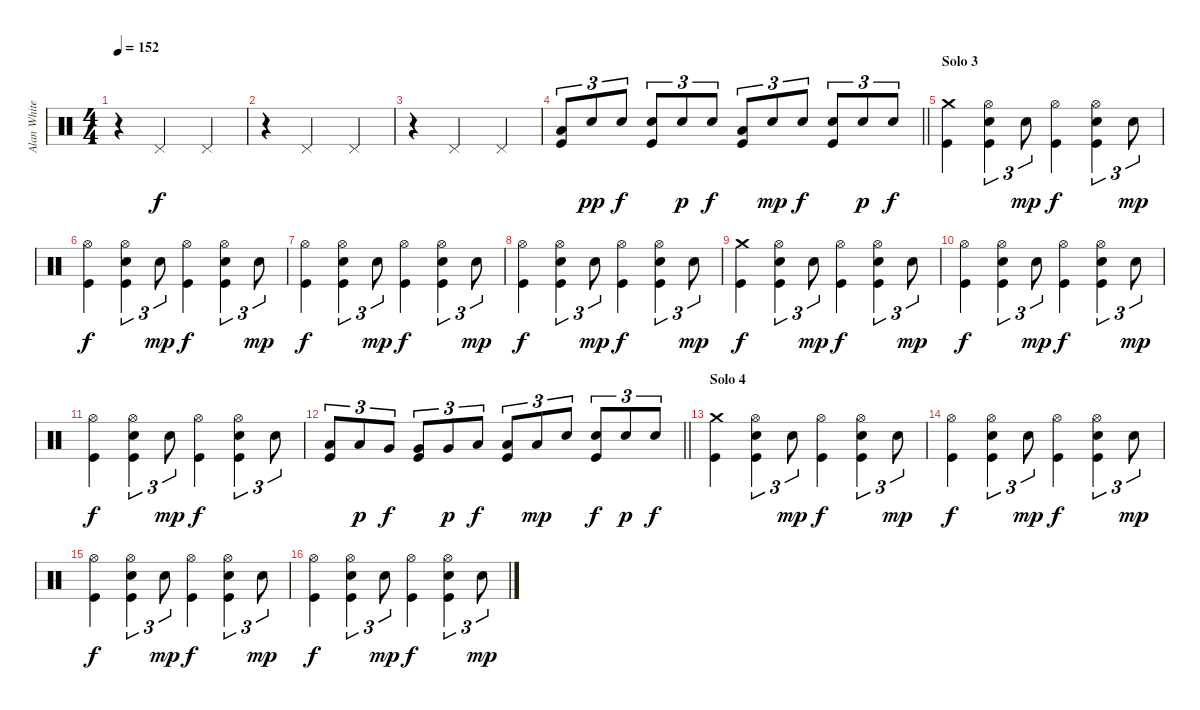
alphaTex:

\track ("Alan White" "Alan White") {instrument percussion}
\staff {score}
\articulation defaults
\ts (4 4)
\tempo 152
\clef neutral
\ks c
r.4{dy f} "Pedal Hi-Hat (hit)".2 "Pedal Hi-Hat (hit)".4 |
r.4 "Pedal Hi-Hat (hit)".2 "Pedal Hi-Hat (hit)".4 |
r.4 "Pedal Hi-Hat (hit)".2 "Pedal Hi-Hat (hit)".4 |
\barLineRight lightlight
("Low Tom (hit)" "Kick (hit)").8{tu (3 2)} "Electric Snare (hit)".8{tu (3 2) dy pp} "Electric Snare (hit)".8{tu (3 2) dy f} ("Electric Snare (hit)" "Kick (hit)").8{tu (3 2)} "Electric Snare (hit)".8{tu (3 2) dy p} "Electric Snare (hit)".8{tu (3 2) dy f} ("Low Tom (hit)" "Kick (hit)").8{tu (3 2)} "Electric Snare (hit)".8{tu (3 2) dy mp} "Electric Snare (hit)".8{tu (3 2) dy f} ("Electric Snare (hit)" "Kick (hit)").8{tu (3 2)} "Electric Snare (hit)".8{tu (3 2) dy p} "Electric Snare (hit)".8{tu (3 2) dy f} |
\section ("" "Solo 3")
("Crash medium (hit)" "Kick (hit)").4 ("Hi-Hat (open)" "Electric Snare (hit)" "Kick (hit)").4{tu (3 2)} "Electric Snare (hit)".8{tu (3 2) dy mp} ("Hi-Hat (open)" "Kick (hit)").4{dy f} ("Hi-Hat (open)" "Electric Snare (hit)" "Kick (hit)").4{tu (3 2)} "Electric Snare (hit)".8{tu (3 2) dy mp} |
("Hi-Hat (open)" "Kick (hit)").4{dy f} ("Hi-Hat (open)" "Electric Snare (hit)" "Kick (hit)").4{tu (3 2)} "Electric Snare (hit)".8{tu (3 2) dy mp} ("Hi-Hat (open)" "Kick (hit)").4{dy f} ("Hi-Hat (open)" "Electric Snare (hit)" "Kick (hit)").4{tu (3 2)} "Electric Snare (hit)".8{tu (3 2) dy mp} |
("Hi-Hat (open)" "Kick (hit)").4{dy f} ("Hi-Hat (open)" "Electric Snare (hit)" "Kick (hit)").4{tu (3 2)} "Electric Snare (hit)".8{tu (3 2) dy mp} ("Hi-Hat (open)" "Kick (hit)").4{dy f} ("Hi-Hat (open)" "Electric Snare (hit)" "Kick (hit)").4{tu (3 2)} "Electric Snare (hit)".8{tu (3 2) dy mp} |
("Hi-Hat (open)" "Kick (hit)").4{dy f} ("Hi-Hat (open)" "Electric Snare (hit)" "Kick (hit)").4{tu (3 2)} "Electric Snare (hit)".8{tu (3 2) dy mp} ("Hi-Hat (open)" "Kick (hit)").4{dy f} ("Hi-Hat (open)" "Electric Snare (hit)" "Kick (hit)").4{tu (3 2)} "Electric Snare (hit)".8{tu (3 2) dy mp} |
("Crash medium (hit)" "Kick (hit)").4{dy f} ("Hi-Hat (open)" "Electric Snare (hit)" "Kick (hit)").4{tu (3 2)} "Electric Snare (hit)".8{tu (3 2) dy mp} ("Hi-Hat (open)" "Kick (hit)").4{dy f} ("Hi-Hat (open)" "Electric Snare (hit)" "Kick (hit)").4{tu (3 2)} "Electric Snare (hit)".8{tu (3 2) dy mp} |
("Hi-Hat (open)" "Kick (hit)").4{dy f} ("Hi-Hat (open)" "Electric Snare (hit)" "Kick (hit)").4{tu (3 2)} "Electric Snare (hit)".8{tu (3 2) dy mp} ("Hi-Hat (open)" "Kick (hit)").4{dy f} ("Hi-Hat (open)" "Electric Snare (hit)" "Kick (hit)").4{tu (3 2)} "Electric Snare (hit)".8{tu (3 2) dy mp} |
("Hi-Hat (open)" "Kick (hit)").4{dy f} ("Hi-Hat (open)" "Electric Snare (hit)" "Kick (hit)").4{tu (3 2)} "Electric Snare (hit)".8{tu (3 2) dy mp} ("Hi-Hat (open)" "Kick (hit)").4{dy f} ("Hi-Hat (open)" "Electric Snare (hit)" "Kick (hit)").4{tu (3 2)} "Electric Snare (hit)".8{tu (3 2)} |
\barLineRight lightlight
("Low Tom (hit)" "Kick (hit)").8{tu (3 2)} "Low Tom (hit)".8{tu (3 2) dy p} "Very Low Tom (hit)".8{tu (3 2) dy f} ("Very Low Tom (hit)" "Kick (hit)").8{tu (3 2)} "Very Low Tom (hit)".8{tu (3 2) dy p} "Low Floor Tom (hit)".8{tu (3 2) dy f} ("Low Floor Tom (hit)" "Kick (hit)").8{tu (3 2)} "Low Floor Tom (hit)".8{tu (3 2) dy mp} "Electric Snare (hit)".8{tu (3 2)} ("Electric Snare (hit)" "Kick (hit)").8{tu (3 2) dy f} "Electric Snare (hit)".8{tu (3 2) dy p} "Electric Snare (hit)".8{tu (3 2) dy f} |
\section ("" "Solo 4")
("Crash medium (hit)" "Kick (hit)").4 ("Hi-Hat (open)" "Electric Snare (hit)" "Kick (hit)").4{tu (3 2)} "Electric Snare (hit)".8{tu (3 2) dy mp} ("Hi-Hat (open)" "Kick (hit)").4{dy f} ("Hi-Hat (open)" "Electric Snare (hit)" "Kick (hit)").4{tu (3 2)} "Electric Snare (hit)".8{tu (3 2) dy mp} |
("Hi-Hat (open)" "Kick (hit)").4{dy f} ("Hi-Hat (open)" "Electric Snare (hit)" "Kick (hit)").4{tu (3 2)} "Electric Snare (hit)".8{tu (3 2) dy mp} ("Hi-Hat (open)" "Kick (hit)").4{dy f} ("Hi-Hat (open)" "Electric Snare (hit)" "Kick (hit)").4{tu (3 2)} "Electric Snare (hit)".8{tu (3 2) dy mp} |
("Hi-Hat (open)" "Kick (hit)").4{dy f} ("Hi-Hat (open)" "Electric Snare (hit)" "Kick (hit)").4{tu (3 2)} "Electric Snare (hit)".8{tu (3 2) dy mp} ("Hi-Hat (open)" "Kick (hit)").4{dy f} ("Hi-Hat (open)" "Electric Snare (hit)" "Kick (hit)").4{tu (3 2)} "Electric Snare (hit)".8{tu (3 2) dy mp} |
("Hi-Hat (open)" "Kick (hit)").4{dy f} ("Hi-Hat (open)" "Electric Snare (hit)" "Kick (hit)").4{tu (3 2)} "Electric Snare (hit)".8{tu (3 2) dy mp} ("Hi-Hat (open)" "Kick (hit)").4{dy f} ("Hi-Hat (open)" "Electric Snare (hit)" "Kick (hit)").4{tu (3 2)} "Electric Snare (hit)".8{tu (3 2) dy mp}
